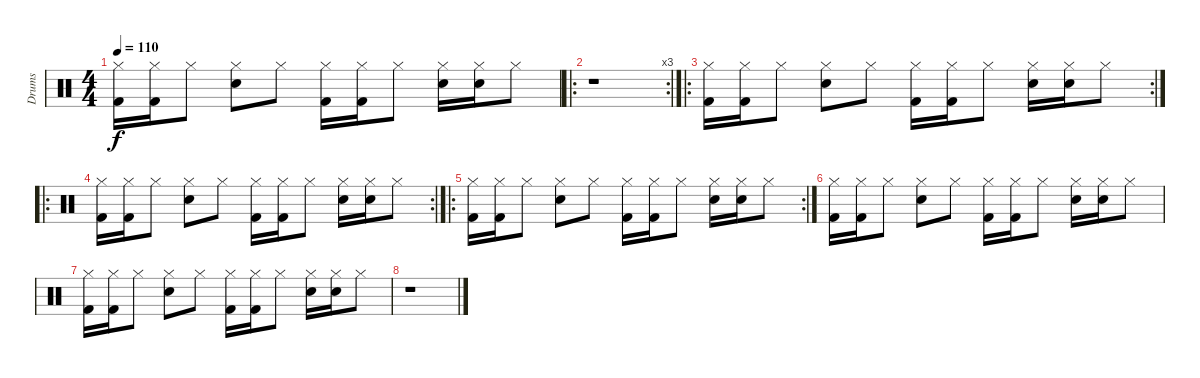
\track ("Drums" "Drums") {instrument percussion}
\staff {score}
\articulation defaults
\ts (4 4)
\tempo 110
\clef neutral
\ks c
("Hi-Hat (closed)" "Kick (hit) 2").16{dy f} ("Hi-Hat (closed)" "Kick (hit) 2").16 "Hi-Hat (closed)".8 ("Hi-Hat (closed)" "Snare (hit) 2").8 "Hi-Hat (closed)".8 ("Hi-Hat (closed)" "Kick (hit) 2").16 ("Hi-Hat (closed)" "Kick (hit) 2").16 "Hi-Hat (closed)".8 ("Hi-Hat (closed)" "Snare (hit) 2").16 ("Hi-Hat (closed)" "Snare (hit) 2").16 "Hi-Hat (closed)".8 |
\ro
\rc 3
r.1 |
\ro
\rc 2
("Hi-Hat (closed)" "Kick (hit) 2").16 ("Hi-Hat (closed)" "Kick (hit) 2").16 "Hi-Hat (closed)".8 ("Hi-Hat (closed)" "Snare (hit) 2").8 "Hi-Hat (closed)".8 ("Hi-Hat (closed)" "Kick (hit) 2").16 ("Hi-Hat (closed)" "Kick (hit) 2").16 "Hi-Hat (closed)".8 ("Hi-Hat (closed)" "Snare (hit) 2").16 ("Hi-Hat (closed)" "Snare (hit) 2").16 "Hi-Hat (closed)".8 |
\ro
\rc 2
("Hi-Hat (closed)" "Kick (hit) 2").16 ("Hi-Hat (closed)" "Kick (hit) 2").16 "Hi-Hat (closed)".8 ("Hi-Hat (closed)" "Snare (hit) 2").8 "Hi-Hat (closed)".8 ("Hi-Hat (closed)" "Kick (hit) 2").16 ("Hi-Hat (closed)" "Kick (hit) 2").16 "Hi-Hat (closed)".8 ("Hi-Hat (closed)" "Snare (hit) 2").16 ("Hi-Hat (closed)" "Snare (hit) 2").16 "Hi-Hat (closed)".8 |
\ro
\rc 2
("Hi-Hat (closed)" "Kick (hit) 2").16 ("Hi-Hat (closed)" "Kick (hit) 2").16 "Hi-Hat (closed)".8 ("Hi-Hat (closed)" "Snare (hit) 2").8 "Hi-Hat (closed)".8 ("Hi-Hat (closed)" "Kick (hit) 2").16 ("Hi-Hat (closed)" "Kick (hit) 2").16 "Hi-Hat (closed)".8 ("Hi-Hat (closed)" "Snare (hit) 2").16 ("Hi-Hat (closed)" "Snare (hit) 2").16 "Hi-Hat (closed)".8 |
("Hi-Hat (closed)" "Kick (hit) 2").16 ("Hi-Hat (closed)" "Kick (hit) 2").16 "Hi-Hat (closed)".8 ("Hi-Hat (closed)" "Snare (hit) 2").8 "Hi-Hat (closed)".8 ("Hi-Hat (closed)" "Kick (hit) 2").16 ("Hi-Hat (closed)" "Kick (hit) 2").16 "Hi-Hat (closed)".8 ("Hi-Hat (closed)" "Snare (hit) 2").16 ("Hi-Hat (closed)" "Snare (hit) 2").16 "Hi-Hat (closed)".8 |
("Hi-Hat (closed)" "Kick (hit) 2").16 ("Hi-Hat (closed)" "Kick (hit) 2").16 "Hi-Hat (closed)".8 ("Hi-Hat (closed)" "Snare (hit) 2").8 "Hi-Hat (closed)".8 ("Hi-Hat (closed)" "Kick (hit) 2").16 ("Hi-Hat (closed)" "Kick (hit) 2").16 "Hi-Hat (closed)".8 ("Hi-Hat (closed)" "Snare (hit) 2").16 ("Hi-Hat (closed)" "Snare (hit) 2").16 "Hi-Hat (closed)".8 |
r.1
